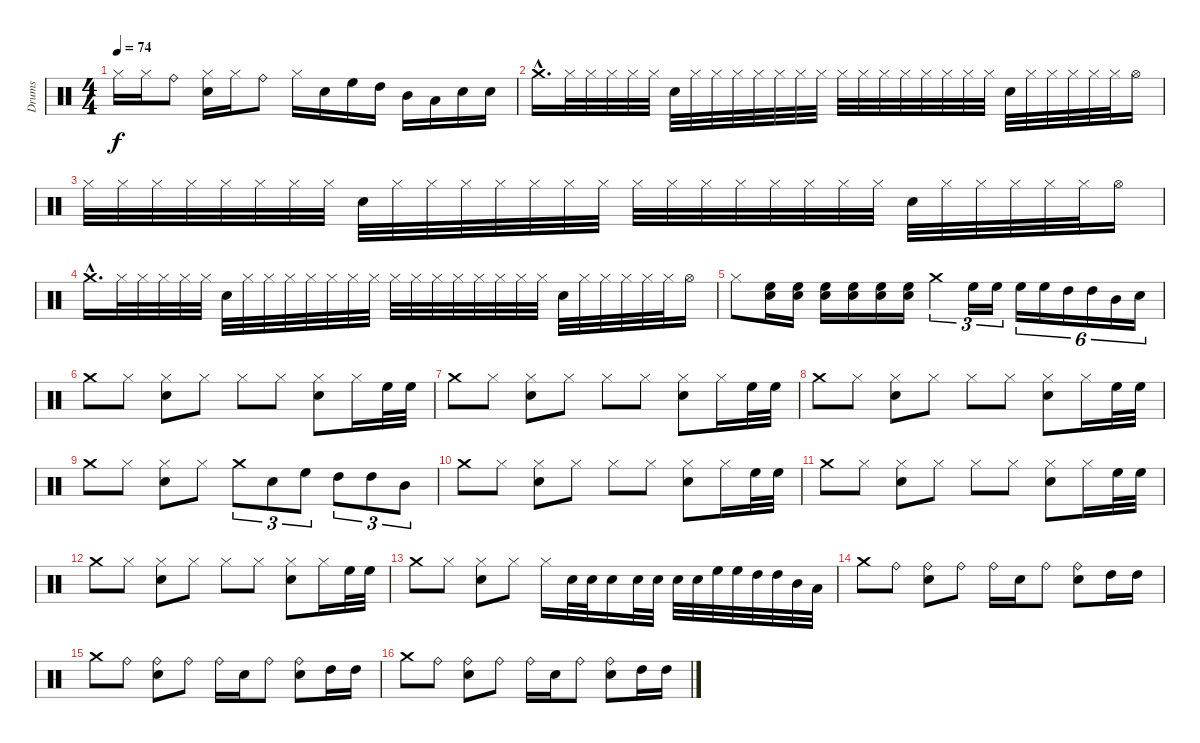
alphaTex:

\track ("Drums" "Drums") {instrument percussion}
\staff {score}
\articulation defaults
\ts (4 4)
\tempo 74
\clef neutral
\ks c "Hi-Hat (closed)".16{dy f} "Hi-Hat (closed)".16 "Ride (bell)".8
("Hi-Hat (closed)" "Electric Snare (hit)").16 "Hi-Hat (closed)".16 "Ride (bell)".8 "Hi-Hat (closed)".16 "Electric Snare (hit)".16 "High Floor Tom (hit)".16 "High Tom (hit)".16 "Mid Tom (hit)".16 "Low Tom (hit)".16 "Electric Snare (hit)".16 "Electric Snare (hit)".16 |
"Crash medium (hit)"{hac}.16{d} "Hi-Hat (closed)".32 "Hi-Hat (closed)".32 "Hi-Hat (closed)".32 "Hi-Hat (closed)".32 "Hi-Hat (closed)".32 "Electric Snare (hit)".32 "Hi-Hat (closed)".32 "Hi-Hat (closed)".32 "Hi-Hat (closed)".32 "Hi-Hat (closed)".32 "Hi-Hat (closed)".32 "Hi-Hat (closed)".32 "Hi-Hat (closed)".32 "Hi-Hat (closed)".32 "Hi-Hat (closed)".32 "Hi-Hat (closed)".32 "Hi-Hat (closed)".32 "Hi-Hat (closed)".32 "Hi-Hat (closed)".32 "Hi-Hat (closed)".32 "Hi-Hat (closed)".32 "Electric Snare (hit)".32 "Hi-Hat (closed)".32 "Hi-Hat (closed)".32 "Hi-Hat (closed)".32 "Hi-Hat (closed)".32 "Hi-Hat (closed)".32 "Hi-Hat (open)".16 |
"Hi-Hat (closed)".32 "Hi-Hat (closed)".32 "Hi-Hat (closed)".32 "Hi-Hat (closed)".32 "Hi-Hat (closed)".32 "Hi-Hat (closed)".32 "Hi-Hat (closed)".32 "Hi-Hat (closed)".32 "Electric Snare (hit)".32 "Hi-Hat (closed)".32 "Hi-Hat (closed)".32 "Hi-Hat (closed)".32 "Hi-Hat (closed)".32 "Hi-Hat (closed)".32 "Hi-Hat (closed)".32 "Hi-Hat (closed)".32 "Hi-Hat (closed)".32 "Hi-Hat (closed)".32 "Hi-Hat (closed)".32 "Hi-Hat (closed)".32 "Hi-Hat (closed)".32 "Hi-Hat (closed)".32 "Hi-Hat (closed)".32 "Hi-Hat (closed)".32 "Electric Snare (hit)".32 "Hi-Hat (closed)".32 "Hi-Hat (closed)".32 "Hi-Hat (closed)".32 "Hi-Hat (closed)".32 "Hi-Hat (closed)".32 "Hi-Hat (open)".16 |
"Crash medium (hit)"{hac}.16{d} "Hi-Hat (closed)".32 "Hi-Hat (closed)".32 "Hi-Hat (closed)".32 "Hi-Hat (closed)".32 "Hi-Hat (closed)".32 "Electric Snare (hit)".32 "Hi-Hat (closed)".32 "Hi-Hat (closed)".32 "Hi-Hat (closed)".32 "Hi-Hat (closed)".32 "Hi-Hat (closed)".32 "Hi-Hat (closed)".32 "Hi-Hat (closed)".32 "Hi-Hat (closed)".32 "Hi-Hat (closed)".32 "Hi-Hat (closed)".32 "Hi-Hat (closed)".32 "Hi-Hat (closed)".32 "Hi-Hat (closed)".32 "Hi-Hat (closed)".32 "Hi-Hat (closed)".32 "Electric Snare (hit)".32 "Hi-Hat (closed)".32 "Hi-Hat (closed)".32 "Hi-Hat (closed)".32 "Hi-Hat (closed)".32 "Hi-Hat (closed)".32 "Hi-Hat (open)".16 |
"Hi-Hat (closed)".8 ("Electric Snare (hit)" "High Floor Tom (hit)").16 ("Electric Snare (hit)" "High Floor Tom (hit)").16 ("Electric Snare (hit)" "High Floor Tom (hit)").16 ("Electric Snare (hit)" "High Floor Tom (hit)").16 ("Electric Snare (hit)" "High Floor Tom (hit)").16 ("Electric Snare (hit)" "High Floor Tom (hit)").16 "Crash medium (hit)".4{tu (3 2)} "High Floor Tom (hit)".16{tu (3 2)} "High Floor Tom (hit)".16{tu (3 2)} "High Floor Tom (hit)".16{tu (6 4)} "High Floor Tom (hit)".16{tu (6 4)} "High Tom (hit)".16{tu (6 4)} "High Tom (hit)".16{tu (6 4)} "Mid Tom (hit)".16{tu (6 4)} "Electric Snare (hit)".16{tu (6 4)} |
"Crash medium (hit)".8 "Hi-Hat (closed)".8 ("Hi-Hat (closed)" "Electric Snare (hit)").8 "Hi-Hat (closed)".8 "Hi-Hat (closed)".8 "Hi-Hat (closed)".8 ("Hi-Hat (closed)" "Electric Snare (hit)").8 "Hi-Hat (closed)".16 "High Floor Tom (hit)".32 "High Floor Tom (hit)".32 |
"Crash medium (hit)".8 "Hi-Hat (closed)".8 ("Hi-Hat (closed)" "Electric Snare (hit)").8 "Hi-Hat (closed)".8 "Hi-Hat (closed)".8 "Hi-Hat (closed)".8 ("Hi-Hat (closed)" "Electric Snare (hit)").8 "Hi-Hat (closed)".16 "High Floor Tom (hit)".32 "High Floor Tom (hit)".32 |
"Crash medium (hit)".8 "Hi-Hat (closed)".8 ("Hi-Hat (closed)" "Electric Snare (hit)").8 "Hi-Hat (closed)".8 "Hi-Hat (closed)".8 "Hi-Hat (closed)".8 ("Hi-Hat (closed)" "Electric Snare (hit)").8 "Hi-Hat (closed)".16 "High Floor Tom (hit)".32 "High Floor Tom (hit)".32 |
"Crash medium (hit)".8 "Hi-Hat (closed)".8 ("Hi-Hat (closed)" "Electric Snare (hit)").8 "Hi-Hat (closed)".8 "Crash medium (hit)".8{tu (3 2)} "Electric Snare (hit)".8{tu (3 2)} "High Floor Tom (hit)".8{tu (3 2)} "High Tom (hit)".8{tu (3 2)} "High Tom (hit)".8{tu (3 2)} "Mid Tom (hit)".8{tu (3 2)} |
"Crash medium (hit)".8 "Hi-Hat (closed)".8 ("Hi-Hat (closed)" "Electric Snare (hit)").8 "Hi-Hat (closed)".8 "Hi-Hat (closed)".8 "Hi-Hat (closed)".8 ("Hi-Hat (closed)" "Electric Snare (hit)").8 "Hi-Hat (closed)".16 "High Floor Tom (hit)".32 "High Floor Tom (hit)".32 |
"Crash medium (hit)".8 "Hi-Hat (closed)".8 ("Hi-Hat (closed)" "Electric Snare (hit)").8 "Hi-Hat (closed)".8 "Hi-Hat (closed)".8 "Hi-Hat (closed)".8 ("Hi-Hat (closed)" "Electric Snare (hit)").8 "Hi-Hat (closed)".16 "High Floor Tom (hit)".32 "High Floor Tom (hit)".32 |
"Crash medium (hit)".8 "Hi-Hat (closed)".8 ("Hi-Hat (closed)" "Electric Snare (hit)").8 "Hi-Hat (closed)".8 "Hi-Hat (closed)".8 "Hi-Hat (closed)".8 ("Hi-Hat (closed)" "Electric Snare (hit)").8 "Hi-Hat (closed)".16 "High Floor Tom (hit)".32 "High Floor Tom (hit)".32 |
"Crash medium (hit)".8 "Hi-Hat (closed)".8 ("Hi-Hat (closed)" "Electric Snare (hit)").8 "Hi-Hat (closed)".8 "Hi-Hat (closed)".16 "Electric Snare (hit)".32 "Electric Snare (hit)".32 "Electric Snare (hit)".16 "Electric Snare (hit)".32 "Electric Snare (hit)".32 "Electric Snare (hit)".32 "Electric Snare (hit)".32 "High Floor Tom (hit)".32 "High Floor Tom (hit)".32 "High Tom (hit)".32 "High Tom (hit)".32 "Mid Tom (hit)".32 "Low Tom (hit)".32 |
"Crash medium (hit)".8 "Ride (bell)".8 ("Ride (bell)" "Electric Snare (hit)").8 "Ride (bell)".8 "Ride (bell)".16 "Electric Snare (hit)".16 "Ride (bell)".8 ("Ride (bell)" "Electric Snare (hit)").8 "High Tom (hit)".16 "High Tom (hit)".16 |
"Crash medium (hit)".8 "Ride (bell)".8 ("Ride (bell)" "Electric Snare (hit)").8 "Ride (bell)".8 "Ride (bell)".16 "Electric Snare (hit)".16 "Ride (bell)".8 ("Ride (bell)" "Electric Snare (hit)").8 "High Tom (hit)".16 "High Tom (hit)".16 |
"Crash medium (hit)".8 "Ride (bell)".8 ("Ride (bell)" "Electric Snare (hit)").8 "Ride (bell)".8 "Ride (bell)".16 "Electric Snare (hit)".16 "Ride (bell)".8 ("Ride (bell)" "Electric Snare (hit)").8 "High Tom (hit)".16 "High Tom (hit)".16
